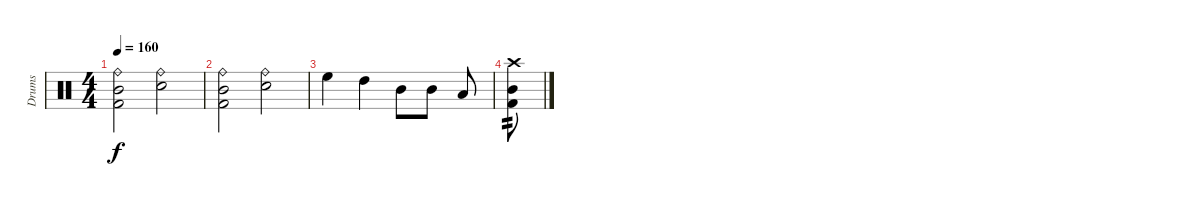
\track ("Drums" "Drums") {instrument percussion}
\staff {score}
\articulation defaults
\ts (4 4)
\tempo 160
\clef neutral
\ks c
("Kick (hit) 2" "Mid Tom (hit)" "Ride (bell)").2{dy f} ("Electric Snare (hit)" "Ride (bell)").2 |
("Kick (hit) 2" "Mid Tom (hit)" "Ride (bell)").2 ("Electric Snare (hit)" "Ride (bell)").2 |
"High Floor Tom (hit)".4 "High Tom (hit)".4 "Mid Tom (hit)".8 "Mid Tom (hit)".8 "Low Tom (hit)".8 |
("Mid Tom (hit)" "Kick (hit) 2" "Crash high (hit)").8{tp 2}
